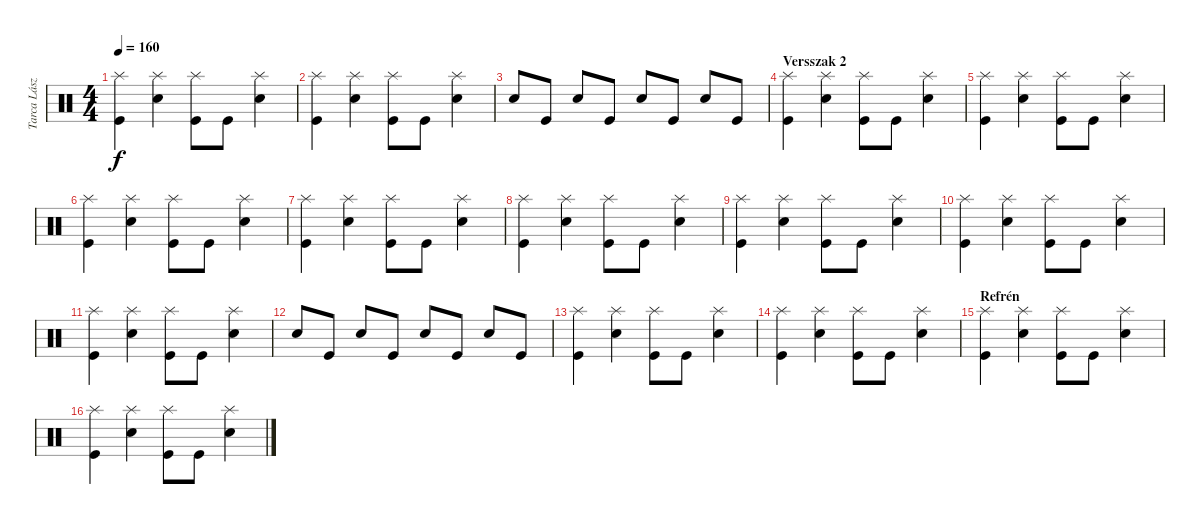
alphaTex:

\track ("Tarca László" "Tarca Lász") {instrument percussion}
\staff {score}
\articulation defaults
\ts (4 4)
\tempo 160
\clef neutral
\ks c
("Splash (hit)" "Kick (hit)").4{dy f} ("Splash (hit)" "Electric Snare (hit)").4 ("Splash (hit)" "Kick (hit)").8 "Kick (hit)".8 ("Splash (hit)" "Electric Snare (hit)").4 |
("Splash (hit)" "Kick (hit)").4 ("Splash (hit)" "Electric Snare (hit)").4 ("Splash (hit)" "Kick (hit)").8 "Kick (hit)".8 ("Splash (hit)" "Electric Snare (hit)").4 |
"Snare (hit) 2".8 "Kick (hit)".8 "Snare (hit) 2".8 "Kick (hit)".8 "Snare (hit) 2".8 "Kick (hit)".8 "Snare (hit) 2".8 "Kick (hit)".8 |
\section ("" "Versszak 2")
("Splash (hit)" "Kick (hit)").4 ("Splash (hit)" "Electric Snare (hit)").4 ("Splash (hit)" "Kick (hit)").8 "Kick (hit)".8 ("Splash (hit)" "Electric Snare (hit)").4 |
("Splash (hit)" "Kick (hit)").4 ("Splash (hit)" "Electric Snare (hit)").4 ("Splash (hit)" "Kick (hit)").8 "Kick (hit)".8 ("Splash (hit)" "Electric Snare (hit)").4 |
("Splash (hit)" "Kick (hit)").4 ("Splash (hit)" "Electric Snare (hit)").4 ("Splash (hit)" "Kick (hit)").8 "Kick (hit)".8 ("Splash (hit)" "Electric Snare (hit)").4 |
("Splash (hit)" "Kick (hit)").4 ("Splash (hit)" "Electric Snare (hit)").4 ("Splash (hit)" "Kick (hit)").8 "Kick (hit)".8 ("Splash (hit)" "Electric Snare (hit)").4 |
("Splash (hit)" "Kick (hit)").4 ("Splash (hit)" "Electric Snare (hit)").4 ("Splash (hit)" "Kick (hit)").8 "Kick (hit)".8 ("Splash (hit)" "Electric Snare (hit)").4 |
("Splash (hit)" "Kick (hit)").4 ("Splash (hit)" "Electric Snare (hit)").4 ("Splash (hit)" "Kick (hit)").8 "Kick (hit)".8 ("Splash (hit)" "Electric Snare (hit)").4 |
("Splash (hit)" "Kick (hit)").4 ("Splash (hit)" "Electric Snare (hit)").4 ("Splash (hit)" "Kick (hit)").8 "Kick (hit)".8 ("Splash (hit)" "Electric Snare (hit)").4 |
("Splash (hit)" "Kick (hit)").4 ("Splash (hit)" "Electric Snare (hit)").4 ("Splash (hit)" "Kick (hit)").8 "Kick (hit)".8 ("Splash (hit)" "Electric Snare (hit)").4 |
"Snare (hit) 2".8 "Kick (hit)".8 "Snare (hit) 2".8 "Kick (hit)".8 "Snare (hit) 2".8 "Kick (hit)".8 "Snare (hit) 2".8 "Kick (hit)".8 |
("Splash (hit)" "Kick (hit)").4 ("Splash (hit)" "Electric Snare (hit)").4 ("Splash (hit)" "Kick (hit)").8 "Kick (hit)".8 ("Splash (hit)" "Electric Snare (hit)").4 |
("Splash (hit)" "Kick (hit)").4 ("Splash (hit)" "Electric Snare (hit)").4 ("Splash (hit)" "Kick (hit)").8 "Kick (hit)".8 ("Splash (hit)" "Electric Snare (hit)").4 |
\section ("" "Refrén")
("Splash (hit)" "Kick (hit)").4 ("Splash (hit)" "Electric Snare (hit)").4 ("Splash (hit)" "Kick (hit)").8 "Kick (hit)".8 ("Splash (hit)" "Electric Snare (hit)").4 |
("Splash (hit)" "Kick (hit)").4 ("Splash (hit)" "Electric Snare (hit)").4 ("Splash (hit)" "Kick (hit)").8 "Kick (hit)".8 ("Splash (hit)" "Electric Snare (hit)").4
